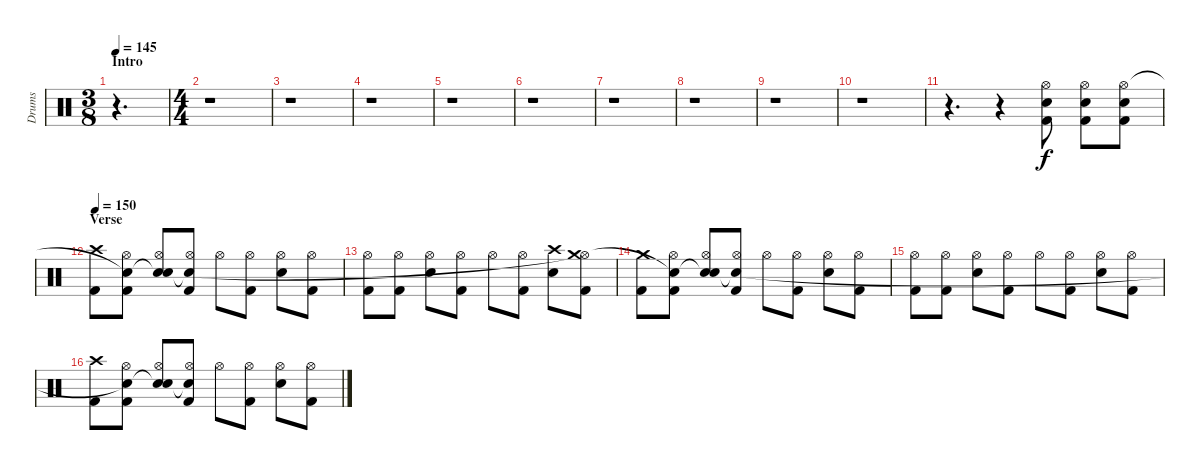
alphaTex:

\track ("Drums" "Drums") {instrument percussion}
\staff {score}
\articulation defaults
\ts (3 8)
\section ("" "Intro")
\tempo 145
\clef neutral
\ks c
r.4{d dy f} |
\ts (4 4)
r.1 |
r.1 |
r.1 |
r.1 |
r.1 |
r.1 |
r.1 |
r.1 |
r.1 |
r.4{d} r.4 ("Kick (hit) 2" "Electric Snare (hit)" "Hi-Hat (open)").8 ("Kick (hit) 2" "Electric Snare (hit)" "Hi-Hat (open)").8 ("Kick (hit) 2" "Electric Snare (hit)" "Hi-Hat (open)").8 |
\section ("" "Verse")
\tempo 150
("Kick (hit) 2" "Crash high (hit)").8 ("Hi-Hat (open)" "Kick (hit) 2" "Snare (hit)"{t}).8 ("Hi-Hat (open)" "Electric Snare (hit)" "Snare (hit)"{t}).8 ("Hi-Hat (open)" "Kick (hit) 2" "Snare (hit)"{t}).8 "Hi-Hat (open)".8 ("Hi-Hat (open)" "Kick (hit) 2").8 ("Hi-Hat (open)" "Electric Snare (hit)").8 ("Hi-Hat (open)" "Kick (hit) 2").8 |
("Hi-Hat (open)" "Kick (hit) 2").8 ("Hi-Hat (open)" "Kick (hit) 2").8 ("Hi-Hat (open)" "Electric Snare (hit)").8 ("Hi-Hat (open)" "Kick (hit) 2").8 "Hi-Hat (open)".8 ("Hi-Hat (open)" "Kick (hit) 2").8 ("Electric Snare (hit)" "Crash high (hit)").8 ("Hi-Hat (open)" "Kick (hit) 2" "Crash medium (hit)"{t}).8 |
("Kick (hit) 2" "Crash medium (hit)").8 ("Hi-Hat (open)" "Kick (hit) 2" "Snare (hit)"{t}).8 ("Hi-Hat (open)" "Electric Snare (hit)" "Snare (hit)"{t}).8 ("Hi-Hat (open)" "Kick (hit) 2" "Snare (hit)"{t}).8 "Hi-Hat (open)".8 ("Hi-Hat (open)" "Kick (hit) 2").8 ("Hi-Hat (open)" "Electric Snare (hit)").8 ("Hi-Hat (open)" "Kick (hit) 2").8 |
("Hi-Hat (open)" "Kick (hit) 2").8 ("Hi-Hat (open)" "Kick (hit) 2").8 ("Hi-Hat (open)" "Electric Snare (hit)").8 ("Hi-Hat (open)" "Kick (hit) 2").8 "Hi-Hat (open)".8 ("Hi-Hat (open)" "Kick (hit) 2").8 ("Hi-Hat (open)" "Electric Snare (hit)").8 ("Hi-Hat (open)" "Kick (hit) 2").8 |
("Kick (hit) 2" "Crash high (hit)").8 ("Hi-Hat (open)" "Kick (hit) 2" "Snare (hit)"{t}).8 ("Hi-Hat (open)" "Electric Snare (hit)" "Snare (hit)"{t}).8 ("Hi-Hat (open)" "Kick (hit) 2" "Snare (hit)"{t}).8 "Hi-Hat (open)".8 ("Hi-Hat (open)" "Kick (hit) 2").8 ("Hi-Hat (open)" "Electric Snare (hit)").8 ("Hi-Hat (open)" "Kick (hit) 2").8
